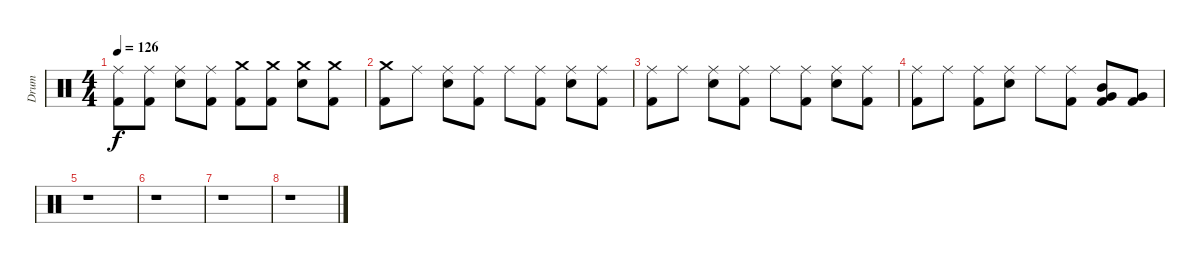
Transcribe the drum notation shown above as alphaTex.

\track ("Drum" "Drum") {instrument percussion}
\staff {score}
\articulation defaults
\ts (4 4)
\tempo 126
\clef neutral
\ks c
("Ride (middle)" "Kick (hit) 2").8{dy f} ("Ride (middle)" "Kick (hit) 2").8 ("Ride (middle)" "Snare (hit) 2").8 ("Ride (middle)" "Kick (hit) 2").8 ("Crash medium (hit)" "Kick (hit) 2").8 ("Crash medium (hit)" "Kick (hit) 2").8 ("Crash medium (hit)" "Snare (hit) 2").8 ("Crash medium (hit)" "Kick (hit) 2").8 |
("Crash medium (hit)" "Kick (hit) 2").8 "Ride (middle)".8 ("Ride (middle)" "Snare (hit) 2").8 ("Ride (middle)" "Kick (hit) 2").8 "Ride (middle)".8 ("Ride (middle)" "Kick (hit) 2").8 ("Ride (middle)" "Snare (hit) 2").8 ("Ride (middle)" "Kick (hit) 2").8 |
("Ride (middle)" "Kick (hit) 2").8 "Ride (middle)".8 ("Ride (middle)" "Snare (hit) 2").8 ("Ride (middle)" "Kick (hit) 2").8 "Ride (middle)".8 ("Ride (middle)" "Kick (hit) 2").8 ("Ride (middle)" "Snare (hit) 2").8 ("Ride (middle)" "Kick (hit) 2").8 |
("Ride (middle)" "Kick (hit) 2").8 "Ride (middle)".8 ("Ride (middle)" "Kick (hit) 2").8 ("Ride (middle)" "Snare (hit) 2").8 "Ride (middle)".8 ("Ride (middle)" "Kick (hit) 2").8 ("Mid Tom (hit)" "Very Low Tom (hit)" "Kick (hit) 2").8 ("Very Low Tom (hit)" "Kick (hit) 2").8 |
r.1 |
r.1 |
r.1 |
r.1
